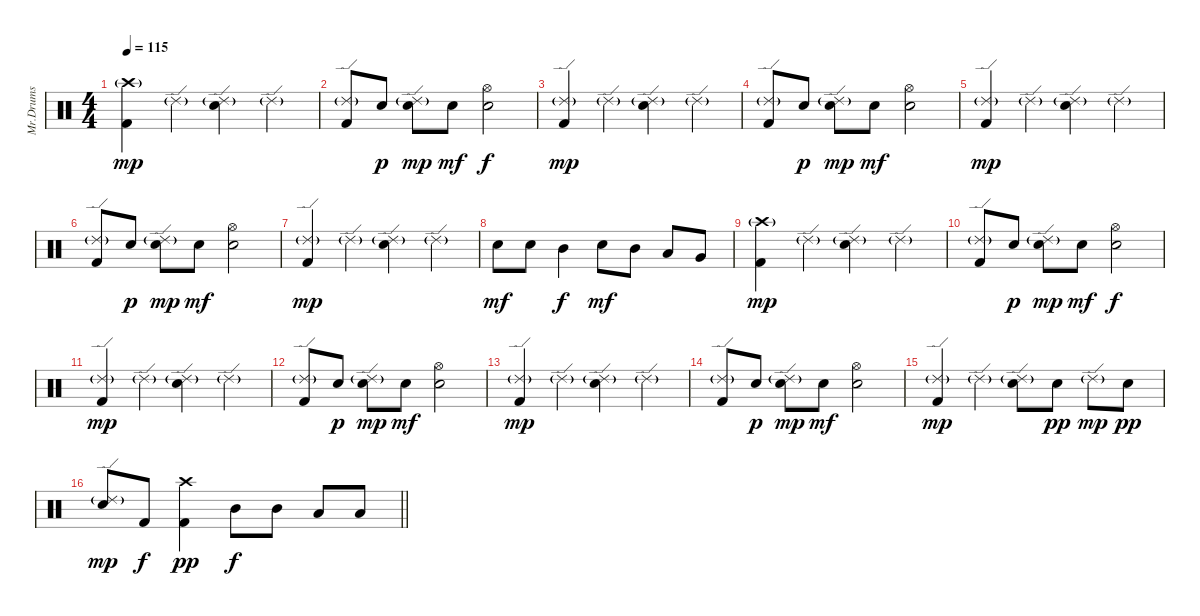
\track ("Mr.Drums" "Mr.Drums") {instrument percussion}
\staff {score}
\articulation defaults
\ts (4 4)
\tempo 115
\clef neutral
\ks c
("Crash high (hit)"{g} "Kick (hit) 2").4{dy mp} "Ride (edge) 2"{g}.4 ("Ride (edge) 2"{g} "Electric Snare (hit)").4 "Ride (edge) 2"{g}.4 |
("Ride (edge) 2"{g} "Kick (hit) 2").8 "Electric Snare (hit)".8{dy p} ("Ride (edge) 2"{g} "Electric Snare (hit)").8{dy mp} "Electric Snare (hit)".8{dy mf} ("Hi-Hat (open)" "Electric Snare (hit)").2{dy f} |
("Ride (edge) 2"{g} "Kick (hit) 2").4{dy mp} "Ride (edge) 2"{g}.4 ("Ride (edge) 2"{g} "Electric Snare (hit)").4 "Ride (edge) 2"{g}.4 |
("Ride (edge) 2"{g} "Kick (hit) 2").8 "Electric Snare (hit)".8{dy p} ("Ride (edge) 2"{g} "Electric Snare (hit)").8{dy mp} "Electric Snare (hit)".8{dy mf} ("Hi-Hat (open)" "Electric Snare (hit)").2 |
("Ride (edge) 2"{g} "Kick (hit) 2").4{dy mp} "Ride (edge) 2"{g}.4 ("Ride (edge) 2"{g} "Electric Snare (hit)").4 "Ride (edge) 2"{g}.4 |
("Ride (edge) 2"{g} "Kick (hit) 2").8 "Electric Snare (hit)".8{dy p} ("Ride (edge) 2"{g} "Electric Snare (hit)").8{dy mp} "Electric Snare (hit)".8{dy mf} ("Hi-Hat (open)" "Electric Snare (hit)").2 |
("Ride (edge) 2"{g} "Kick (hit) 2").4{dy mp} "Ride (edge) 2"{g}.4 ("Ride (edge) 2"{g} "Electric Snare (hit)").4 "Ride (edge) 2"{g}.4 |
"Electric Snare (hit)".8{dy mf} "Electric Snare (hit)".8 "Mid Tom (hit)".4{dy f} "Electric Snare (hit)".8{dy mf} "Mid Tom (hit)".8 "Low Tom (hit)".8 "Very Low Tom (hit)".8 |
("Crash high (hit)"{g} "Kick (hit) 2").4{dy mp} "Ride (edge) 2"{g}.4 ("Ride (edge) 2"{g} "Electric Snare (hit)").4 "Ride (edge) 2"{g}.4 |
("Ride (edge) 2"{g} "Kick (hit) 2").8 "Electric Snare (hit)".8{dy p} ("Ride (edge) 2"{g} "Electric Snare (hit)").8{dy mp} "Electric Snare (hit)".8{dy mf} ("Hi-Hat (open)" "Electric Snare (hit)").2{dy f} |
("Ride (edge) 2"{g} "Kick (hit) 2").4{dy mp} "Ride (edge) 2"{g}.4 ("Ride (edge) 2"{g} "Electric Snare (hit)").4 "Ride (edge) 2"{g}.4 |
("Ride (edge) 2"{g} "Kick (hit) 2").8 "Electric Snare (hit)".8{dy p} ("Ride (edge) 2"{g} "Electric Snare (hit)").8{dy mp} "Electric Snare (hit)".8{dy mf} ("Hi-Hat (open)" "Electric Snare (hit)").2 |
("Ride (edge) 2"{g} "Kick (hit) 2").4{dy mp} "Ride (edge) 2"{g}.4 ("Ride (edge) 2"{g} "Electric Snare (hit)").4 "Ride (edge) 2"{g}.4 |
("Ride (edge) 2"{g} "Kick (hit) 2").8 "Electric Snare (hit)".8{dy p} ("Ride (edge) 2"{g} "Electric Snare (hit)").8{dy mp} "Electric Snare (hit)".8{dy mf} ("Hi-Hat (open)" "Electric Snare (hit)").2 |
("Ride (edge) 2"{g} "Kick (hit) 2").4{dy mp} "Ride (edge) 2"{g}.4 ("Ride (edge) 2"{g} "Electric Snare (hit)").8 "Electric Snare (hit)".8{dy pp} "Ride (edge) 2"{g}.8{dy mp} "Electric Snare (hit)".8{dy pp} |
\barLineRight lightlight
("Ride (edge) 2"{g} "Electric Snare (hit)").8{dy mp} "Kick (hit) 2".8{dy f} ("Crash high (hit)" "Kick (hit) 2").4{dy pp} "Mid Tom (hit)".8{dy f} "Mid Tom (hit)".8 "Low Tom (hit)".8 "Low Tom (hit)".8
